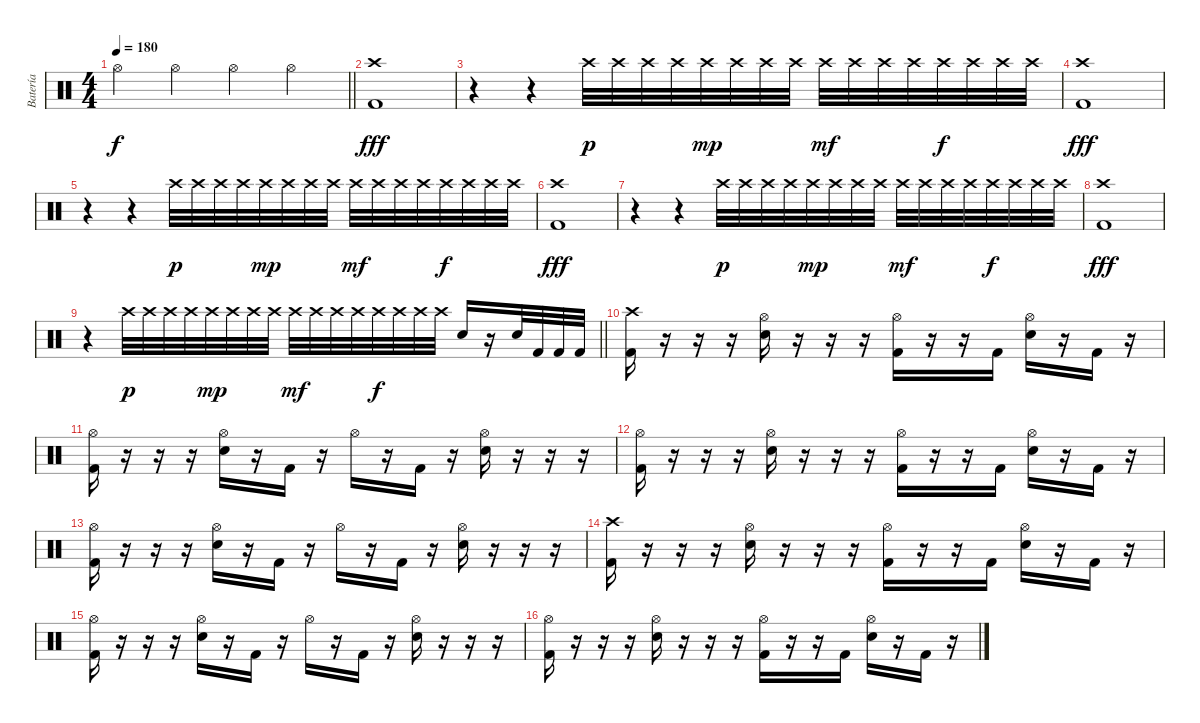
\track ("Batería" "Batería") {instrument percussion}
\staff {score}
\articulation defaults
\ts (4 4)
\tempo 180
\clef neutral
\barLineRight lightlight
\ks c "Hi-Hat (open)".4{dy f} "Hi-Hat (open)".4 "Hi-Hat (open)".4 "Hi-Hat (open)".4
|
("Crash high (hit)" "Kick (hit) 2").1{dy fff} |
r.4 r.4 "Crash high (hit)".32{dy p} "Crash high (hit)".32 "Crash high (hit)".32 "Crash high (hit)".32 "Crash high (hit)".32{dy mp} "Crash high (hit)".32 "Crash high (hit)".32 "Crash high (hit)".32 "Crash high (hit)".32{dy mf} "Crash high (hit)".32 "Crash high (hit)".32 "Crash high (hit)".32 "Crash high (hit)".32{dy f} "Crash high (hit)".32 "Crash high (hit)".32 "Crash high (hit)".32 |
("Crash high (hit)" "Kick (hit) 2").1{dy fff} |
r.4 r.4 "Crash high (hit)".32{dy p} "Crash high (hit)".32 "Crash high (hit)".32 "Crash high (hit)".32 "Crash high (hit)".32{dy mp} "Crash high (hit)".32 "Crash high (hit)".32 "Crash high (hit)".32 "Crash high (hit)".32{dy mf} "Crash high (hit)".32 "Crash high (hit)".32 "Crash high (hit)".32 "Crash high (hit)".32{dy f} "Crash high (hit)".32 "Crash high (hit)".32 "Crash high (hit)".32 |
("Crash high (hit)" "Kick (hit) 2").1{dy fff} |
r.4 r.4 "Crash high (hit)".32{dy p} "Crash high (hit)".32 "Crash high (hit)".32 "Crash high (hit)".32 "Crash high (hit)".32{dy mp} "Crash high (hit)".32 "Crash high (hit)".32 "Crash high (hit)".32 "Crash high (hit)".32{dy mf} "Crash high (hit)".32 "Crash high (hit)".32 "Crash high (hit)".32 "Crash high (hit)".32{dy f} "Crash high (hit)".32 "Crash high (hit)".32 "Crash high (hit)".32 |
("Crash high (hit)" "Kick (hit) 2").1{dy fff} |
\barLineRight lightlight
r.4 "Crash high (hit)".32{dy p} "Crash high (hit)".32 "Crash high (hit)".32 "Crash high (hit)".32 "Crash high (hit)".32{dy mp} "Crash high (hit)".32 "Crash high (hit)".32 "Crash high (hit)".32 "Crash high (hit)".32{dy mf} "Crash high (hit)".32 "Crash high (hit)".32 "Crash high (hit)".32 "Crash high (hit)".32{dy f} "Crash high (hit)".32 "Crash high (hit)".32 "Crash high (hit)".32 "Snare (hit) 2".16 r.16 "Snare (hit) 2".32 "Kick (hit) 2".32 "Kick (hit) 2".32 "Kick (hit) 2".32 |
("Crash high (hit)" "Kick (hit) 2").16 r.16 r.16 r.16 ("Hi-Hat (open)" "Snare (hit) 2").16 r.16 r.16 r.16 ("Hi-Hat (open)" "Kick (hit) 2").16 r.16 r.16 "Kick (hit) 2".16 ("Hi-Hat (open)" "Snare (hit) 2").16 r.16 "Kick (hit) 2".16 r.16 |
("Hi-Hat (open)" "Kick (hit) 2").16 r.16 r.16 r.16 ("Hi-Hat (open)" "Snare (hit) 2").16 r.16 "Kick (hit) 2".16 r.16 "Hi-Hat (open)".16 r.16 "Kick (hit) 2".16 r.16 ("Hi-Hat (open)" "Snare (hit) 2").16 r.16 r.16 r.16 |
("Hi-Hat (open)" "Kick (hit) 2").16 r.16 r.16 r.16 ("Hi-Hat (open)" "Snare (hit) 2").16 r.16 r.16 r.16 ("Hi-Hat (open)" "Kick (hit) 2").16 r.16 r.16 "Kick (hit) 2".16 ("Hi-Hat (open)" "Snare (hit) 2").16 r.16 "Kick (hit) 2".16 r.16 |
("Hi-Hat (open)" "Kick (hit) 2").16 r.16 r.16 r.16 ("Hi-Hat (open)" "Snare (hit) 2").16 r.16 "Kick (hit) 2".16 r.16 "Hi-Hat (open)".16 r.16 "Kick (hit) 2".16 r.16 ("Hi-Hat (open)" "Snare (hit) 2").16 r.16 r.16 r.16 |
("Crash high (hit)" "Kick (hit) 2").16 r.16 r.16 r.16 ("Hi-Hat (open)" "Snare (hit) 2").16 r.16 r.16 r.16 ("Hi-Hat (open)" "Kick (hit) 2").16 r.16 r.16 "Kick (hit) 2".16 ("Hi-Hat (open)" "Snare (hit) 2").16 r.16 "Kick (hit) 2".16 r.16 |
("Hi-Hat (open)" "Kick (hit) 2").16 r.16 r.16 r.16 ("Hi-Hat (open)" "Snare (hit) 2").16 r.16 "Kick (hit) 2".16 r.16 "Hi-Hat (open)".16 r.16 "Kick (hit) 2".16 r.16 ("Hi-Hat (open)" "Snare (hit) 2").16 r.16 r.16 r.16 |
("Hi-Hat (open)" "Kick (hit) 2").16 r.16 r.16 r.16 ("Hi-Hat (open)" "Snare (hit) 2").16 r.16 r.16 r.16 ("Hi-Hat (open)" "Kick (hit) 2").16 r.16 r.16 "Kick (hit) 2".16 ("Hi-Hat (open)" "Snare (hit) 2").16 r.16 "Kick (hit) 2".16 r.16
